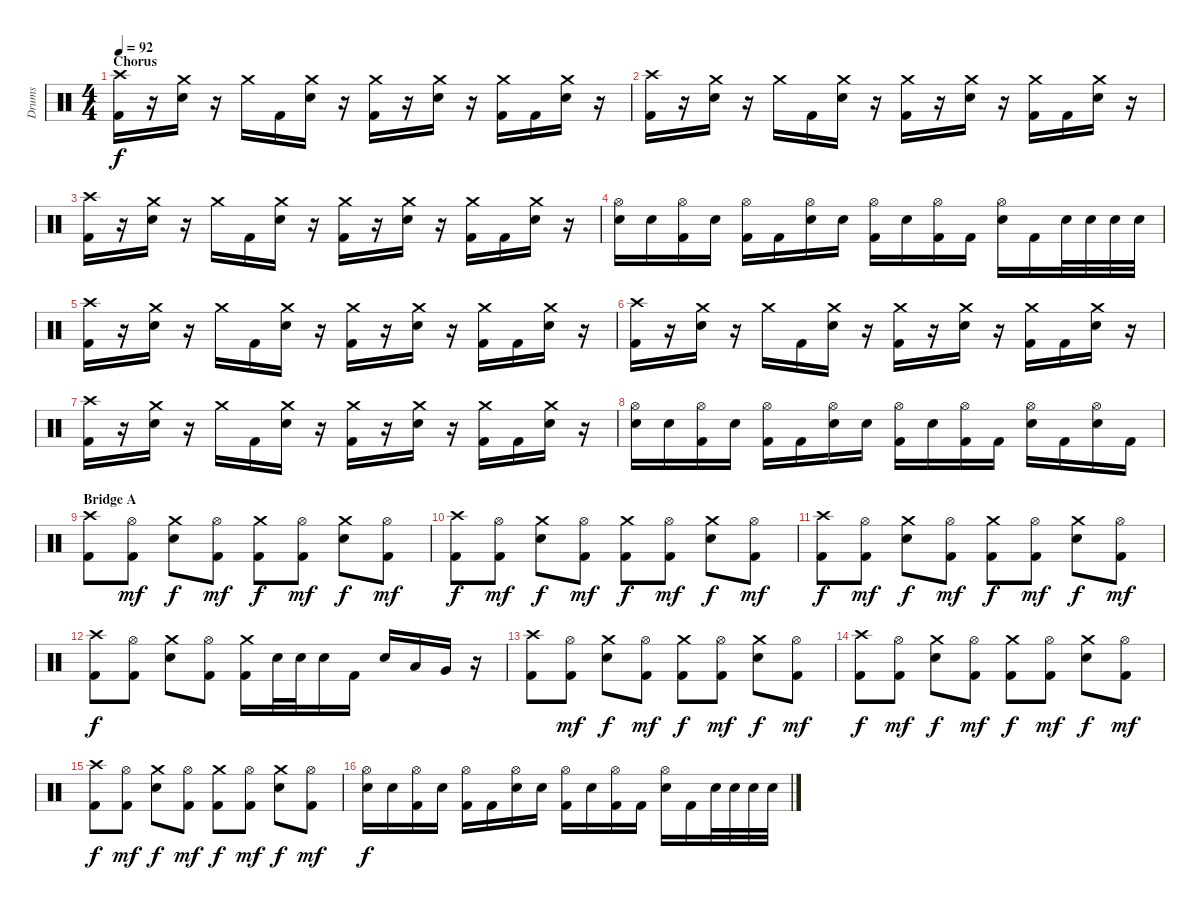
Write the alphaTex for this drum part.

\track ("Drums" "Drums") {instrument percussion}
\staff {score}
\articulation defaults
\ts (4 4)
\section ("" "Chorus")
\tempo 92
\clef neutral
\ks c
("Crash high (hit)" "Kick (hit) 2").16{dy f} r.16 ("Crash medium (hit)" "Electric Snare (hit)").16 r.16 "Crash medium (hit)".16 "Kick (hit) 2".16 ("Crash medium (hit)" "Electric Snare (hit)").16 r.16 ("Crash medium (hit)" "Kick (hit) 2").16 r.16 ("Crash medium (hit)" "Electric Snare (hit)").16 r.16 ("Crash medium (hit)" "Kick (hit) 2").16 "Kick (hit) 2".16 ("Crash medium (hit)" "Electric Snare (hit)").16 r.16 |
("Crash high (hit)" "Kick (hit) 2").16 r.16 ("Crash medium (hit)" "Electric Snare (hit)").16 r.16 "Crash medium (hit)".16 "Kick (hit) 2".16 ("Crash medium (hit)" "Electric Snare (hit)").16 r.16 ("Crash medium (hit)" "Kick (hit) 2").16 r.16 ("Crash medium (hit)" "Electric Snare (hit)").16 r.16 ("Crash medium (hit)" "Kick (hit) 2").16 "Kick (hit) 2".16 ("Crash medium (hit)" "Electric Snare (hit)").16 r.16 |
("Crash high (hit)" "Kick (hit) 2").16 r.16 ("Crash medium (hit)" "Electric Snare (hit)").16 r.16 "Crash medium (hit)".16 "Kick (hit) 2".16 ("Crash medium (hit)" "Electric Snare (hit)").16 r.16 ("Crash medium (hit)" "Kick (hit) 2").16 r.16 ("Crash medium (hit)" "Electric Snare (hit)").16 r.16 ("Crash medium (hit)" "Kick (hit) 2").16 "Kick (hit) 2".16 ("Crash medium (hit)" "Electric Snare (hit)").16 r.16 |
("Hi-Hat (open)" "Electric Snare (hit)").16 "Electric Snare (hit)".16 ("Hi-Hat (open)" "Kick (hit) 2").16 "Electric Snare (hit)".16 ("Hi-Hat (open)" "Kick (hit) 2").16 "Kick (hit) 2".16 ("Hi-Hat (open)" "Electric Snare (hit)").16 "Electric Snare (hit)".16 ("Hi-Hat (open)" "Kick (hit) 2").16 "Electric Snare (hit)".16 ("Hi-Hat (open)" "Kick (hit) 2").16 "Kick (hit) 2".16 ("Hi-Hat (open)" "Electric Snare (hit)").16 "Kick (hit) 2".16 "Electric Snare (hit)".32 "Electric Snare (hit)".32 "Electric Snare (hit)".32 "Electric Snare (hit)".32 |
("Crash high (hit)" "Kick (hit) 2").16 r.16 ("Crash medium (hit)" "Electric Snare (hit)").16 r.16 "Crash medium (hit)".16 "Kick (hit) 2".16 ("Crash medium (hit)" "Electric Snare (hit)").16 r.16 ("Crash medium (hit)" "Kick (hit) 2").16 r.16 ("Crash medium (hit)" "Electric Snare (hit)").16 r.16 ("Crash medium (hit)" "Kick (hit) 2").16 "Kick (hit) 2".16 ("Crash medium (hit)" "Electric Snare (hit)").16 r.16 |
("Crash high (hit)" "Kick (hit) 2").16 r.16 ("Crash medium (hit)" "Electric Snare (hit)").16 r.16 "Crash medium (hit)".16 "Kick (hit) 2".16 ("Crash medium (hit)" "Electric Snare (hit)").16 r.16 ("Crash medium (hit)" "Kick (hit) 2").16 r.16 ("Crash medium (hit)" "Electric Snare (hit)").16 r.16 ("Crash medium (hit)" "Kick (hit) 2").16 "Kick (hit) 2".16 ("Crash medium (hit)" "Electric Snare (hit)").16 r.16 |
("Crash high (hit)" "Kick (hit) 2").16 r.16 ("Crash medium (hit)" "Electric Snare (hit)").16 r.16 "Crash medium (hit)".16 "Kick (hit) 2".16 ("Crash medium (hit)" "Electric Snare (hit)").16 r.16 ("Crash medium (hit)" "Kick (hit) 2").16 r.16 ("Crash medium (hit)" "Electric Snare (hit)").16 r.16 ("Crash medium (hit)" "Kick (hit) 2").16 "Kick (hit) 2".16 ("Crash medium (hit)" "Electric Snare (hit)").16 r.16 |
("Hi-Hat (open)" "Electric Snare (hit)").16 "Electric Snare (hit)".16 ("Hi-Hat (open)" "Kick (hit) 2").16 "Electric Snare (hit)".16 ("Hi-Hat (open)" "Kick (hit) 2").16 "Kick (hit) 2".16 ("Hi-Hat (open)" "Electric Snare (hit)").16 "Electric Snare (hit)".16 ("Hi-Hat (open)" "Kick (hit) 2").16 "Electric Snare (hit)".16 ("Hi-Hat (open)" "Kick (hit) 2").16 "Kick (hit) 2".16 ("Hi-Hat (open)" "Electric Snare (hit)").16 "Kick (hit) 2".16 ("Hi-Hat (open)" "Electric Snare (hit)").16 "Kick (hit) 2".16 |
\section ("" "Bridge A")
("Crash high (hit)" "Kick (hit) 2").8 ("Hi-Hat (open)" "Kick (hit) 2").8{dy mf} ("Crash medium (hit)" "Electric Snare (hit)").8{dy f} ("Hi-Hat (open)" "Kick (hit) 2").8{dy mf} ("Crash medium (hit)" "Kick (hit) 2").8{dy f} ("Hi-Hat (open)" "Kick (hit) 2").8{dy mf} ("Crash medium (hit)" "Electric Snare (hit)").8{dy f} ("Hi-Hat (open)" "Kick (hit) 2").8{dy mf} |
("Crash high (hit)" "Kick (hit) 2").8{dy f} ("Hi-Hat (open)" "Kick (hit) 2").8{dy mf} ("Crash medium (hit)" "Electric Snare (hit)").8{dy f} ("Hi-Hat (open)" "Kick (hit) 2").8{dy mf} ("Crash medium (hit)" "Kick (hit) 2").8{dy f} ("Hi-Hat (open)" "Kick (hit) 2").8{dy mf} ("Crash medium (hit)" "Electric Snare (hit)").8{dy f} ("Hi-Hat (open)" "Kick (hit) 2").8{dy mf} |
("Crash high (hit)" "Kick (hit) 2").8{dy f} ("Hi-Hat (open)" "Kick (hit) 2").8{dy mf} ("Crash medium (hit)" "Electric Snare (hit)").8{dy f} ("Hi-Hat (open)" "Kick (hit) 2").8{dy mf} ("Crash medium (hit)" "Kick (hit) 2").8{dy f} ("Hi-Hat (open)" "Kick (hit) 2").8{dy mf} ("Crash medium (hit)" "Electric Snare (hit)").8{dy f} ("Hi-Hat (open)" "Kick (hit) 2").8{dy mf} |
("Crash high (hit)" "Kick (hit) 2").8{dy f} ("Hi-Hat (open)" "Kick (hit) 2").8 ("Crash medium (hit)" "Electric Snare (hit)").8 ("Hi-Hat (open)" "Kick (hit) 2").8 ("Crash medium (hit)" "Kick (hit) 2").16 "Electric Snare (hit)".32 "Electric Snare (hit)".32 "Electric Snare (hit)".16 "Kick (hit) 2".16 "Electric Snare (hit)".16 "Low Tom (hit)".16 "Very Low Tom (hit)".16 r.16 |
("Crash high (hit)" "Kick (hit) 2").8 ("Hi-Hat (open)" "Kick (hit) 2").8{dy mf} ("Crash medium (hit)" "Electric Snare (hit)").8{dy f} ("Hi-Hat (open)" "Kick (hit) 2").8{dy mf} ("Crash medium (hit)" "Kick (hit) 2").8{dy f} ("Hi-Hat (open)" "Kick (hit) 2").8{dy mf} ("Crash medium (hit)" "Electric Snare (hit)").8{dy f} ("Hi-Hat (open)" "Kick (hit) 2").8{dy mf} |
("Crash high (hit)" "Kick (hit) 2").8{dy f} ("Hi-Hat (open)" "Kick (hit) 2").8{dy mf} ("Crash medium (hit)" "Electric Snare (hit)").8{dy f} ("Hi-Hat (open)" "Kick (hit) 2").8{dy mf} ("Crash medium (hit)" "Kick (hit) 2").8{dy f} ("Hi-Hat (open)" "Kick (hit) 2").8{dy mf} ("Crash medium (hit)" "Electric Snare (hit)").8{dy f} ("Hi-Hat (open)" "Kick (hit) 2").8{dy mf} |
("Crash high (hit)" "Kick (hit) 2").8{dy f} ("Hi-Hat (open)" "Kick (hit) 2").8{dy mf} ("Crash medium (hit)" "Electric Snare (hit)").8{dy f} ("Hi-Hat (open)" "Kick (hit) 2").8{dy mf} ("Crash medium (hit)" "Kick (hit) 2").8{dy f} ("Hi-Hat (open)" "Kick (hit) 2").8{dy mf} ("Crash medium (hit)" "Electric Snare (hit)").8{dy f} ("Hi-Hat (open)" "Kick (hit) 2").8{dy mf} |
("Hi-Hat (open)" "Electric Snare (hit)").16{dy f} "Electric Snare (hit)".16 ("Hi-Hat (open)" "Kick (hit) 2").16 "Electric Snare (hit)".16 ("Hi-Hat (open)" "Kick (hit) 2").16 "Kick (hit) 2".16 ("Hi-Hat (open)" "Electric Snare (hit)").16 "Electric Snare (hit)".16 ("Hi-Hat (open)" "Kick (hit) 2").16 "Electric Snare (hit)".16 ("Hi-Hat (open)" "Kick (hit) 2").16 "Kick (hit) 2".16 ("Hi-Hat (open)" "Electric Snare (hit)").16 "Kick (hit) 2".16 "Electric Snare (hit)".32 "Electric Snare (hit)".32 "Electric Snare (hit)".32 "Electric Snare (hit)".32
